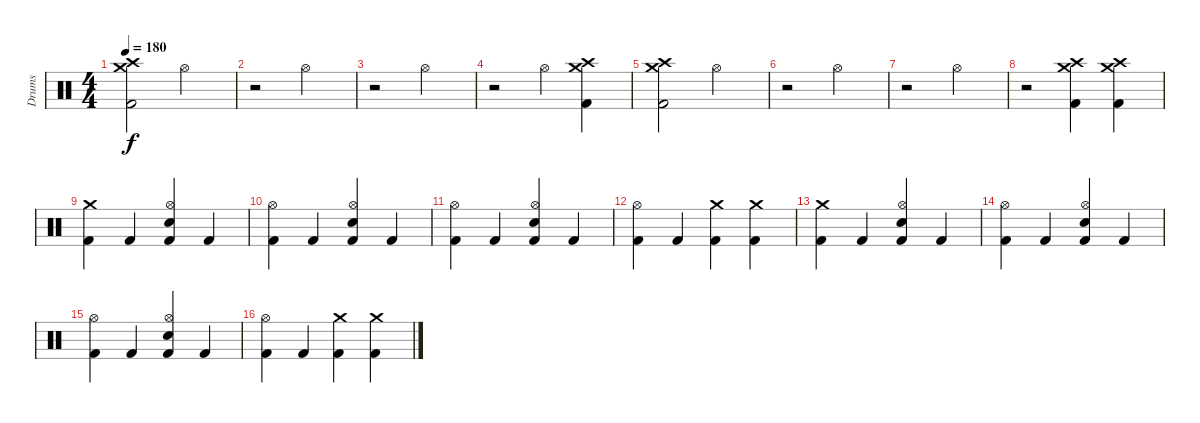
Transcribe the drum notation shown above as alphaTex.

\track ("Drums" "Drums") {instrument percussion}
\staff {score}
\articulation defaults
\ts (4 4)
\tempo 180
\clef neutral
\ks c
("Crash high (hit)" "Crash medium (hit)" "Kick (hit) 2").2{dy f} "Hi-Hat (open)".2 |
r.2 "Hi-Hat (open)".2 |
r.2 "Hi-Hat (open)".2 |
r.2 "Hi-Hat (open)".4 ("Crash high (hit)" "Crash medium (hit)" "Kick (hit) 2").4 |
("Crash high (hit)" "Crash medium (hit)" "Kick (hit) 2").2 "Hi-Hat (open)".2 |
r.2 "Hi-Hat (open)".2 |
r.2 "Hi-Hat (open)".2 |
r.2 ("Crash high (hit)" "Crash medium (hit)" "Kick (hit) 2").4 ("Crash high (hit)" "Crash medium (hit)" "Kick (hit) 2").4 |
("Crash medium (hit)" "Kick (hit) 2").4 "Kick (hit) 2".4 ("Hi-Hat (open)" "Snare (hit) 2" "Kick (hit) 2").4 "Kick (hit) 2".4 |
("Hi-Hat (open)" "Kick (hit) 2").4 "Kick (hit) 2".4 ("Hi-Hat (open)" "Snare (hit) 2" "Kick (hit) 2").4 "Kick (hit) 2".4 |
("Hi-Hat (open)" "Kick (hit) 2").4 "Kick (hit) 2".4 ("Hi-Hat (open)" "Snare (hit) 2" "Kick (hit) 2").4 "Kick (hit) 2".4 |
("Hi-Hat (open)" "Kick (hit) 2").4 "Kick (hit) 2".4 ("Crash medium (hit)" "Kick (hit) 2").4 ("Crash medium (hit)" "Kick (hit) 2").4 |
("Crash medium (hit)" "Kick (hit) 2").4 "Kick (hit) 2".4 ("Hi-Hat (open)" "Snare (hit) 2" "Kick (hit) 2").4 "Kick (hit) 2".4 |
("Hi-Hat (open)" "Kick (hit) 2").4 "Kick (hit) 2".4 ("Hi-Hat (open)" "Snare (hit) 2" "Kick (hit) 2").4 "Kick (hit) 2".4 |
("Hi-Hat (open)" "Kick (hit) 2").4 "Kick (hit) 2".4 ("Hi-Hat (open)" "Snare (hit) 2" "Kick (hit) 2").4 "Kick (hit) 2".4 |
("Hi-Hat (open)" "Kick (hit) 2").4 "Kick (hit) 2".4 ("Crash medium (hit)" "Kick (hit) 2").4 ("Crash medium (hit)" "Kick (hit) 2").4
